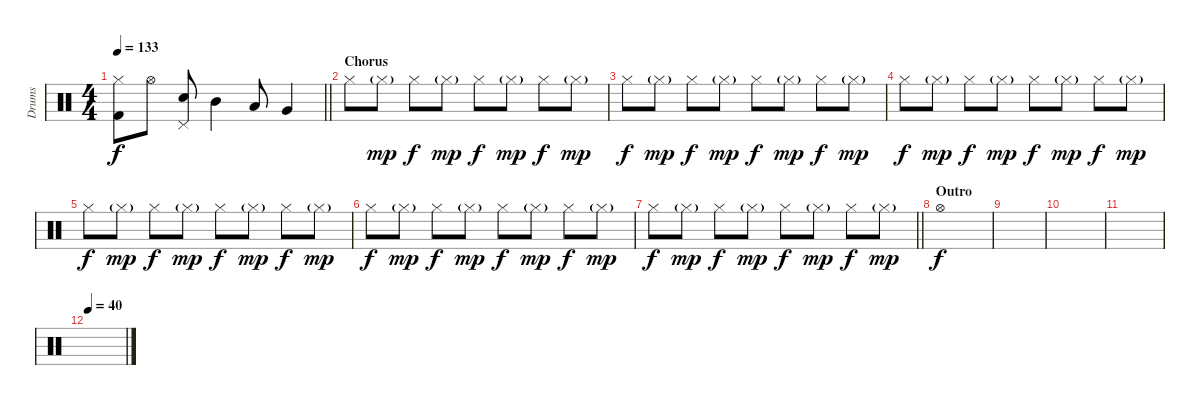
\track ("Drums" "Drums") {instrument percussion}
\staff {score}
\articulation defaults
\ts (4 4)
\tempo 133
\clef neutral
\barLineRight lightlight
\ks c
("Hi-Hat (closed)" "Kick (hit) 2").8{dy f} "Hi-Hat (open)".8 ("Pedal Hi-Hat (hit)" "Electric Snare (hit)").8 "Mid Tom (hit)".4 "Low Tom (hit)".8 "Very Low Tom (hit)".4 |
\section ("" "Chorus")
"Hi-Hat (closed)".8 "Hi-Hat (closed)"{g}.8{dy mp} "Hi-Hat (closed)".8{dy f} "Hi-Hat (closed)"{g}.8{dy mp} "Hi-Hat (closed)".8{dy f} "Hi-Hat (closed)"{g}.8{dy mp} "Hi-Hat (closed)".8{dy f} "Hi-Hat (closed)"{g}.8{dy mp} |
"Hi-Hat (closed)".8{dy f} "Hi-Hat (closed)"{g}.8{dy mp} "Hi-Hat (closed)".8{dy f} "Hi-Hat (closed)"{g}.8{dy mp} "Hi-Hat (closed)".8{dy f} "Hi-Hat (closed)"{g}.8{dy mp} "Hi-Hat (closed)".8{dy f} "Hi-Hat (closed)"{g}.8{dy mp} |
"Hi-Hat (closed)".8{dy f} "Hi-Hat (closed)"{g}.8{dy mp} "Hi-Hat (closed)".8{dy f} "Hi-Hat (closed)"{g}.8{dy mp} "Hi-Hat (closed)".8{dy f} "Hi-Hat (closed)"{g}.8{dy mp} "Hi-Hat (closed)".8{dy f} "Hi-Hat (closed)"{g}.8{dy mp} |
"Hi-Hat (closed)".8{dy f} "Hi-Hat (closed)"{g}.8{dy mp} "Hi-Hat (closed)".8{dy f} "Hi-Hat (closed)"{g}.8{dy mp} "Hi-Hat (closed)".8{dy f} "Hi-Hat (closed)"{g}.8{dy mp} "Hi-Hat (closed)".8{dy f} "Hi-Hat (closed)"{g}.8{dy mp} |
"Hi-Hat (closed)".8{dy f} "Hi-Hat (closed)"{g}.8{dy mp} "Hi-Hat (closed)".8{dy f} "Hi-Hat (closed)"{g}.8{dy mp} "Hi-Hat (closed)".8{dy f} "Hi-Hat (closed)"{g}.8{dy mp} "Hi-Hat (closed)".8{dy f} "Hi-Hat (closed)"{g}.8{dy mp} |
\barLineRight lightlight "Hi-Hat (closed)".8{dy f} "Hi-Hat (closed)"{g}.8{dy mp} "Hi-Hat (closed)".8{dy f} "Hi-Hat (closed)"{g}.8{dy mp} "Hi-Hat (closed)".8{dy f} "Hi-Hat (closed)"{g}.8{dy mp} "Hi-Hat (closed)".8{dy f} "Hi-Hat (closed)"{g}.8{dy mp}
|
\section ("" "Outro")
"Hi-Hat (open)".1{dy f} |
|
|
|
\tempo 40
